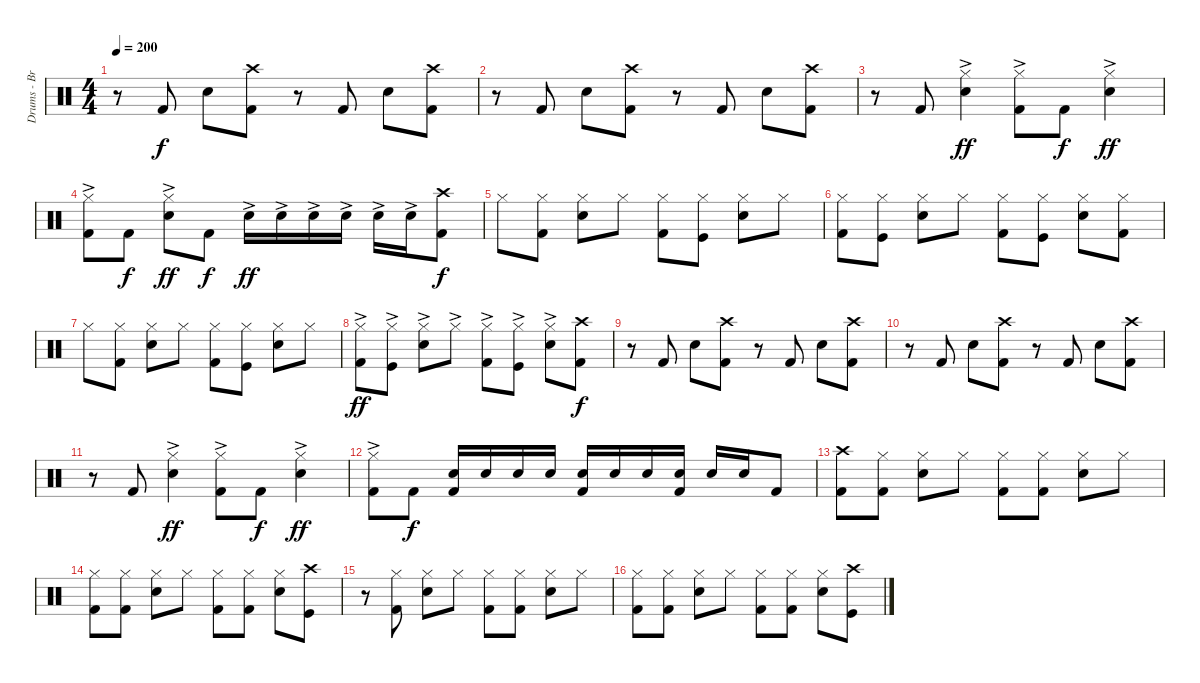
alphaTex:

\track ("Drums - Brandon Barnes" "Drums - Br") {instrument percussion}
\staff {score}
\articulation defaults
\ts (4 4)
\tempo 200
\clef neutral
\ks c
r.8{dy f} "Kick (hit) 2".8 "Snare (hit) 2".8 ("Kick (hit) 2" "Crash high (hit)").8 r.8 "Kick (hit) 2".8 "Snare (hit) 2".8 ("Kick (hit) 2" "Crash high (hit)").8 |
r.8 "Kick (hit) 2".8 "Snare (hit) 2".8 ("Kick (hit) 2" "Crash high (hit)").8 r.8 "Kick (hit) 2".8 "Snare (hit) 2".8 ("Kick (hit) 2" "Crash high (hit)").8 |
r.8 "Kick (hit) 2".8 ("Snare (hit) 2" "Hi-Hat (closed)"{ac}).4{dy ff} ("Hi-Hat (closed)"{ac} "Kick (hit) 2").8 "Kick (hit) 2".8{dy f} ("Snare (hit) 2" "Hi-Hat (closed)"{ac}).4{dy ff} |
("Hi-Hat (closed)"{ac} "Kick (hit) 2").8 "Kick (hit) 2".8{dy f} ("Electric Snare (hit)" "Hi-Hat (closed)"{ac}).8{dy ff} "Kick (hit) 2".8{dy f} "Snare (hit) 2"{ac}.16{dy ff} "Snare (hit) 2"{ac}.16 "Snare (hit) 2"{ac}.16 "Snare (hit) 2"{ac}.16 "Snare (hit) 2"{ac}.16 "Snare (hit) 2"{ac}.16 ("Kick (hit) 2" "Crash high (hit)").8{dy f} |
"Hi-Hat (closed)".8 ("Hi-Hat (closed)" "Kick (hit) 2").8 ("Hi-Hat (closed)" "Snare (hit) 2").8 "Hi-Hat (closed)".8 ("Kick (hit) 2" "Hi-Hat (closed)").8 ("Hi-Hat (closed)" "Kick (hit)").8 ("Snare (hit) 2" "Hi-Hat (closed)").8 "Hi-Hat (closed)".8 |
("Kick (hit) 2" "Hi-Hat (closed)").8 ("Hi-Hat (closed)" "Kick (hit)").8 ("Snare (hit) 2" "Hi-Hat (closed)").8 "Hi-Hat (closed)".8 ("Kick (hit) 2" "Hi-Hat (closed)").8 ("Hi-Hat (closed)" "Kick (hit)").8 ("Snare (hit) 2" "Hi-Hat (closed)").8 ("Hi-Hat (closed)" "Kick (hit) 2").8 |
"Hi-Hat (closed)".8 ("Hi-Hat (closed)" "Kick (hit) 2").8 ("Hi-Hat (closed)" "Snare (hit) 2").8 "Hi-Hat (closed)".8 ("Kick (hit) 2" "Hi-Hat (closed)").8 ("Hi-Hat (closed)" "Kick (hit)").8 ("Snare (hit) 2" "Hi-Hat (closed)").8 "Hi-Hat (closed)".8 |
("Kick (hit) 2" "Hi-Hat (closed)"{ac}).8{dy ff} ("Hi-Hat (closed)"{ac} "Kick (hit)").8 ("Snare (hit) 2" "Hi-Hat (closed)"{ac}).8 "Hi-Hat (closed)"{ac}.8 ("Kick (hit) 2" "Hi-Hat (closed)"{ac}).8 ("Hi-Hat (closed)"{ac} "Kick (hit)").8 ("Snare (hit) 2" "Hi-Hat (closed)"{ac}).8 ("Kick (hit) 2" "Crash high (hit)").8{dy f} |
r.8 "Kick (hit) 2".8 "Snare (hit) 2".8 ("Kick (hit) 2" "Crash high (hit)").8 r.8 "Kick (hit) 2".8 "Snare (hit) 2".8 ("Kick (hit) 2" "Crash high (hit)").8 |
r.8 "Kick (hit) 2".8 "Snare (hit) 2".8 ("Kick (hit) 2" "Crash high (hit)").8 r.8 "Kick (hit) 2".8 "Snare (hit) 2".8 ("Kick (hit) 2" "Crash high (hit)").8 |
r.8 "Kick (hit) 2".8 ("Snare (hit) 2" "Hi-Hat (closed)"{ac}).4{dy ff} ("Hi-Hat (closed)"{ac} "Kick (hit) 2").8 "Kick (hit) 2".8{dy f} ("Snare (hit) 2" "Hi-Hat (closed)"{ac}).4{dy ff} |
("Kick (hit) 2" "Hi-Hat (closed)"{ac}).8 "Kick (hit) 2".8{dy f} ("Snare (hit) 2" "Kick (hit) 2").16 "Snare (hit) 2".16 "Snare (hit) 2".16 "Snare (hit) 2".16 ("Snare (hit) 2" "Kick (hit) 2").16 "Snare (hit) 2".16 "Snare (hit) 2".16 ("Kick (hit) 2" "Snare (hit) 2").16 "Snare (hit) 2".16 "Snare (hit) 2".16 "Kick (hit) 2".8 |
("Crash high (hit)" "Kick (hit) 2").8 ("Kick (hit) 2" "Hi-Hat (closed)").8 ("Hi-Hat (closed)" "Snare (hit) 2").8 "Hi-Hat (closed)".8 ("Hi-Hat (closed)" "Kick (hit) 2").8 ("Kick (hit) 2" "Hi-Hat (closed)").8 ("Hi-Hat (closed)" "Snare (hit) 2").8 "Hi-Hat (closed)".8 |
("Hi-Hat (closed)" "Kick (hit) 2").8 ("Kick (hit) 2" "Hi-Hat (closed)").8 ("Hi-Hat (closed)" "Snare (hit) 2").8 "Hi-Hat (closed)".8 ("Hi-Hat (closed)" "Kick (hit) 2").8 ("Kick (hit) 2" "Hi-Hat (closed)").8 ("Hi-Hat (closed)" "Snare (hit) 2").8 ("Crash high (hit)" "Kick (hit)").8 |
r.8 ("Kick (hit) 2" "Hi-Hat (closed)").8 ("Hi-Hat (closed)" "Snare (hit) 2").8 "Hi-Hat (closed)".8 ("Hi-Hat (closed)" "Kick (hit) 2").8 ("Kick (hit) 2" "Hi-Hat (closed)").8 ("Hi-Hat (closed)" "Snare (hit) 2").8 "Hi-Hat (closed)".8 |
("Hi-Hat (closed)" "Kick (hit) 2").8 ("Kick (hit) 2" "Hi-Hat (closed)").8 ("Hi-Hat (closed)" "Snare (hit) 2").8 "Hi-Hat (closed)".8 ("Hi-Hat (closed)" "Kick (hit) 2").8 ("Kick (hit) 2" "Hi-Hat (closed)").8 ("Hi-Hat (closed)" "Snare (hit) 2").8 ("Crash high (hit)" "Kick (hit)").8
